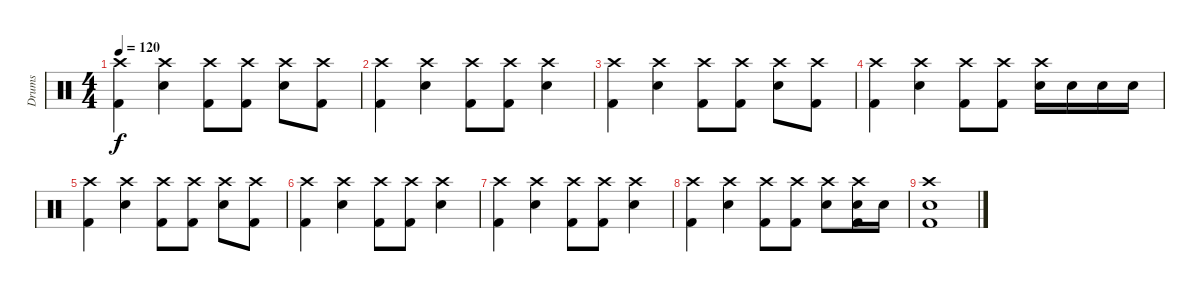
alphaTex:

\track ("Drums" "Drums") {instrument percussion}
\staff {score}
\articulation defaults
\ts (4 4)
\tempo 120
\clef neutral
\ks c
("Crash high (hit)" "Kick (hit) 2").4{dy f} ("Crash high (hit)" "Electric Snare (hit)").4 ("Crash high (hit)" "Kick (hit) 2").8 ("Crash high (hit)" "Kick (hit) 2").8 ("Crash high (hit)" "Electric Snare (hit)").8 ("Crash high (hit)" "Kick (hit) 2").8 |
("Crash high (hit)" "Kick (hit) 2").4 ("Crash high (hit)" "Electric Snare (hit)").4 ("Crash high (hit)" "Kick (hit) 2").8 ("Crash high (hit)" "Kick (hit) 2").8 ("Crash high (hit)" "Electric Snare (hit)").4 |
("Crash high (hit)" "Kick (hit) 2").4 ("Crash high (hit)" "Electric Snare (hit)").4 ("Crash high (hit)" "Kick (hit) 2").8 ("Crash high (hit)" "Kick (hit) 2").8 ("Crash high (hit)" "Electric Snare (hit)").8 ("Crash high (hit)" "Kick (hit) 2").8 |
("Crash high (hit)" "Kick (hit) 2").4 ("Crash high (hit)" "Electric Snare (hit)").4 ("Crash high (hit)" "Kick (hit) 2").8 ("Crash high (hit)" "Kick (hit) 2").8 ("Crash high (hit)" "Electric Snare (hit)").16 "Electric Snare (hit)".16 "Electric Snare (hit)".16 "Electric Snare (hit)".16 |
("Crash high (hit)" "Kick (hit) 2").4 ("Crash high (hit)" "Electric Snare (hit)").4 ("Crash high (hit)" "Kick (hit) 2").8 ("Crash high (hit)" "Kick (hit) 2").8 ("Crash high (hit)" "Electric Snare (hit)").8 ("Crash high (hit)" "Kick (hit) 2").8 |
("Crash high (hit)" "Kick (hit) 2").4 ("Crash high (hit)" "Electric Snare (hit)").4 ("Crash high (hit)" "Kick (hit) 2").8 ("Crash high (hit)" "Kick (hit) 2").8 ("Crash high (hit)" "Electric Snare (hit)").4 |
("Crash high (hit)" "Kick (hit) 2").4 ("Crash high (hit)" "Electric Snare (hit)").4 ("Crash high (hit)" "Kick (hit) 2").8 ("Crash high (hit)" "Kick (hit) 2").8 ("Crash high (hit)" "Electric Snare (hit)").4 |
("Crash high (hit)" "Kick (hit) 2").4 ("Crash high (hit)" "Electric Snare (hit)").4 ("Crash high (hit)" "Kick (hit) 2").8 ("Crash high (hit)" "Kick (hit) 2").8 ("Crash high (hit)" "Electric Snare (hit)").8 ("Crash high (hit)" "Electric Snare (hit)" "Kick (hit) 2").16 "Electric Snare (hit)".16 |
("Crash high (hit)" "Electric Snare (hit)" "Kick (hit) 2").1
